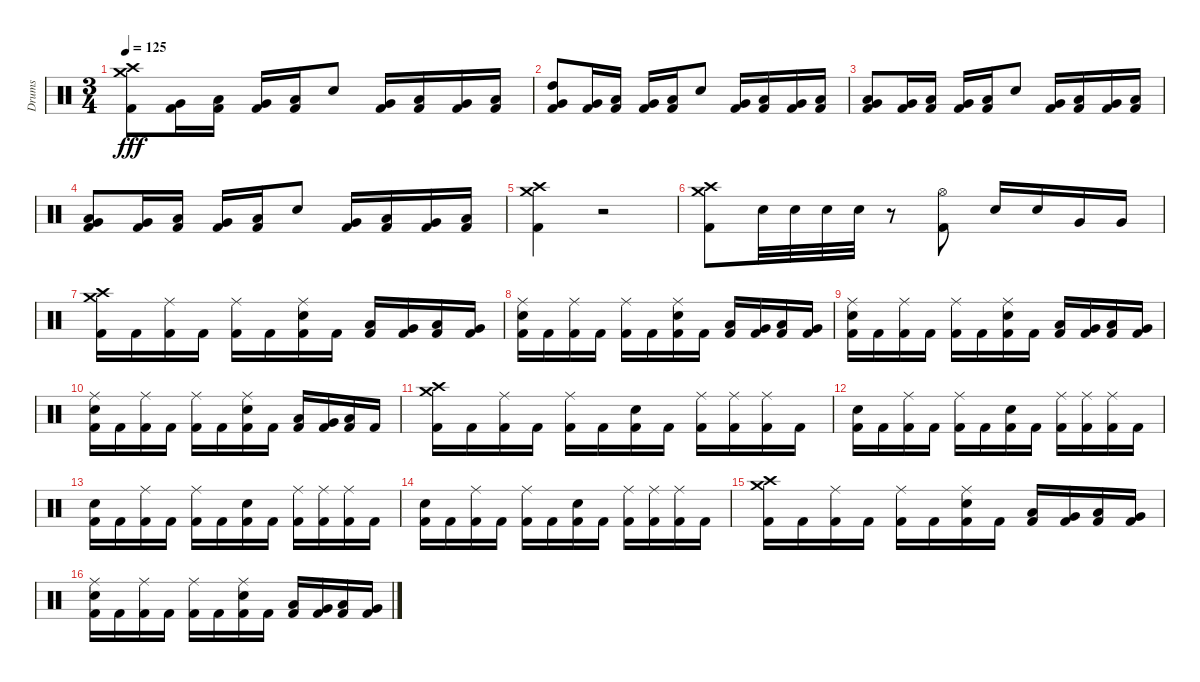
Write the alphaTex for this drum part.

\track ("Drums" "Drums") {instrument percussion}
\staff {score}
\articulation defaults
\ts (3 4)
\tempo 125
\clef neutral
\ks c
("Kick (hit) 2" "Crash medium (hit)" "Crash high (hit)").8{dy fff} ("Kick (hit) 2" "Very Low Tom (hit)").16 ("Kick (hit) 2" "Low Tom (hit)").16 ("Kick (hit) 2" "Very Low Tom (hit)").16 ("Kick (hit) 2" "Low Tom (hit)").16 "Electric Snare (hit)".8 ("Kick (hit) 2" "Very Low Tom (hit)").16 ("Kick (hit) 2" "Low Tom (hit)").16 ("Kick (hit) 2" "Very Low Tom (hit)").16 ("Kick (hit) 2" "Low Tom (hit)").16 |
("Kick (hit) 2" "Very Low Tom (hit)" "High Tom (hit)").8 ("Kick (hit) 2" "Very Low Tom (hit)").16 ("Kick (hit) 2" "Low Tom (hit)").16 ("Kick (hit) 2" "Very Low Tom (hit)").16 ("Kick (hit) 2" "Low Tom (hit)").16 "Electric Snare (hit)".8 ("Kick (hit) 2" "Very Low Tom (hit)").16 ("Kick (hit) 2" "Low Tom (hit)").16 ("Kick (hit) 2" "Very Low Tom (hit)").16 ("Kick (hit) 2" "Low Tom (hit)").16 |
("Kick (hit) 2" "Low Tom (hit)" "Very Low Tom (hit)").8 ("Kick (hit) 2" "Very Low Tom (hit)").16 ("Kick (hit) 2" "Low Tom (hit)").16 ("Kick (hit) 2" "Very Low Tom (hit)").16 ("Kick (hit) 2" "Low Tom (hit)").16 "Electric Snare (hit)".8 ("Kick (hit) 2" "Very Low Tom (hit)").16 ("Kick (hit) 2" "Low Tom (hit)").16 ("Kick (hit) 2" "Very Low Tom (hit)").16 ("Kick (hit) 2" "Low Tom (hit)").16 |
("Kick (hit) 2" "Low Tom (hit)" "Very Low Tom (hit)").8 ("Kick (hit) 2" "Very Low Tom (hit)").16 ("Kick (hit) 2" "Low Tom (hit)").16 ("Kick (hit) 2" "Very Low Tom (hit)").16 ("Kick (hit) 2" "Low Tom (hit)").16 "Electric Snare (hit)".8 ("Kick (hit) 2" "Very Low Tom (hit)").16 ("Kick (hit) 2" "Low Tom (hit)").16 ("Kick (hit) 2" "Very Low Tom (hit)").16 ("Kick (hit) 2" "Low Tom (hit)").16 |
("Kick (hit) 2" "Crash medium (hit)" "Crash high (hit)").4 r.2 |
("Kick (hit) 2" "Crash medium (hit)" "Crash high (hit)").8 "Electric Snare (hit)".32 "Electric Snare (hit)".32 "Electric Snare (hit)".32 "Electric Snare (hit)".32 r.8 ("Kick (hit) 2" "Hi-Hat (open)").8 "Electric Snare (hit)".16 "Electric Snare (hit)".16 "Very Low Tom (hit)".16 "Very Low Tom (hit)".16 |
("Kick (hit) 2" "Crash medium (hit)" "Crash high (hit)").16 "Kick (hit) 2".16 ("Kick (hit) 2" "Ride (middle)").16 "Kick (hit) 2".16 ("Kick (hit) 2" "Ride (middle)").16 "Kick (hit) 2".16 ("Kick (hit) 2" "Electric Snare (hit)" "Ride (middle)").16 "Kick (hit) 2".16 ("Kick (hit) 2" "Low Tom (hit)").16 ("Kick (hit) 2" "Very Low Tom (hit)").16 ("Kick (hit) 2" "Low Tom (hit)").16 ("Kick (hit) 2" "Very Low Tom (hit)").16 |
("Kick (hit) 2" "Electric Snare (hit)" "Ride (middle)").16 "Kick (hit) 2".16 ("Kick (hit) 2" "Ride (middle)").16 "Kick (hit) 2".16 ("Kick (hit) 2" "Ride (middle)").16 "Kick (hit) 2".16 ("Kick (hit) 2" "Electric Snare (hit)" "Ride (middle)").16 "Kick (hit) 2".16 ("Kick (hit) 2" "Low Tom (hit)").16 ("Kick (hit) 2" "Very Low Tom (hit)").16 ("Kick (hit) 2" "Low Tom (hit)").16 ("Kick (hit) 2" "Very Low Tom (hit)").16 |
("Kick (hit) 2" "Electric Snare (hit)" "Ride (middle)").16 "Kick (hit) 2".16 ("Kick (hit) 2" "Ride (middle)").16 "Kick (hit) 2".16 ("Kick (hit) 2" "Ride (middle)").16 "Kick (hit) 2".16 ("Kick (hit) 2" "Electric Snare (hit)" "Ride (middle)").16 "Kick (hit) 2".16 ("Kick (hit) 2" "Low Tom (hit)").16 ("Kick (hit) 2" "Very Low Tom (hit)").16 ("Kick (hit) 2" "Low Tom (hit)").16 ("Kick (hit) 2" "Very Low Tom (hit)").16 |
("Kick (hit) 2" "Electric Snare (hit)" "Ride (middle)").16 "Kick (hit) 2".16 ("Kick (hit) 2" "Ride (middle)").16 "Kick (hit) 2".16 ("Kick (hit) 2" "Ride (middle)").16 "Kick (hit) 2".16 ("Kick (hit) 2" "Electric Snare (hit)" "Ride (middle)").16 "Kick (hit) 2".16 ("Kick (hit) 2" "Low Tom (hit)").16 ("Kick (hit) 2" "Very Low Tom (hit)").16 ("Kick (hit) 2" "Low Tom (hit)").16 "Kick (hit) 2".16 |
("Kick (hit) 2" "Crash high (hit)" "Crash medium (hit)").16 "Kick (hit) 2".16 ("Kick (hit) 2" "Ride (middle)").16 "Kick (hit) 2".16 ("Kick (hit) 2" "Ride (middle)").16 "Kick (hit) 2".16 ("Kick (hit) 2" "Electric Snare (hit)").16 "Kick (hit) 2".16 ("Kick (hit) 2" "Ride (middle)").16 ("Kick (hit) 2" "Ride (middle)").16 ("Kick (hit) 2" "Ride (middle)").16 "Kick (hit) 2".16 |
("Kick (hit) 2" "Electric Snare (hit)").16 "Kick (hit) 2".16 ("Kick (hit) 2" "Ride (middle)").16 "Kick (hit) 2".16 ("Kick (hit) 2" "Ride (middle)").16 "Kick (hit) 2".16 ("Kick (hit) 2" "Electric Snare (hit)").16 "Kick (hit) 2".16 ("Kick (hit) 2" "Ride (middle)").16 ("Kick (hit) 2" "Ride (middle)").16 ("Kick (hit) 2" "Ride (middle)").16 "Kick (hit) 2".16 |
("Kick (hit) 2" "Electric Snare (hit)").16 "Kick (hit) 2".16 ("Kick (hit) 2" "Ride (middle)").16 "Kick (hit) 2".16 ("Kick (hit) 2" "Ride (middle)").16 "Kick (hit) 2".16 ("Kick (hit) 2" "Electric Snare (hit)").16 "Kick (hit) 2".16 ("Kick (hit) 2" "Ride (middle)").16 ("Kick (hit) 2" "Ride (middle)").16 ("Kick (hit) 2" "Ride (middle)").16 "Kick (hit) 2".16 |
("Kick (hit) 2" "Electric Snare (hit)").16 "Kick (hit) 2".16 ("Kick (hit) 2" "Ride (middle)").16 "Kick (hit) 2".16 ("Kick (hit) 2" "Ride (middle)").16 "Kick (hit) 2".16 ("Kick (hit) 2" "Electric Snare (hit)").16 "Kick (hit) 2".16 ("Kick (hit) 2" "Ride (middle)").16 ("Kick (hit) 2" "Ride (middle)").16 ("Kick (hit) 2" "Ride (middle)").16 "Kick (hit) 2".16 |
("Kick (hit) 2" "Crash medium (hit)" "Crash high (hit)").16 "Kick (hit) 2".16 ("Kick (hit) 2" "Ride (middle)").16 "Kick (hit) 2".16 ("Kick (hit) 2" "Ride (middle)").16 "Kick (hit) 2".16 ("Kick (hit) 2" "Electric Snare (hit)" "Ride (middle)").16 "Kick (hit) 2".16 ("Kick (hit) 2" "Low Tom (hit)").16 ("Kick (hit) 2" "Very Low Tom (hit)").16 ("Kick (hit) 2" "Low Tom (hit)").16 ("Kick (hit) 2" "Very Low Tom (hit)").16 |
("Kick (hit) 2" "Electric Snare (hit)" "Ride (middle)").16 "Kick (hit) 2".16 ("Kick (hit) 2" "Ride (middle)").16 "Kick (hit) 2".16 ("Kick (hit) 2" "Ride (middle)").16 "Kick (hit) 2".16 ("Kick (hit) 2" "Electric Snare (hit)" "Ride (middle)").16 "Kick (hit) 2".16 ("Kick (hit) 2" "Low Tom (hit)").16 ("Kick (hit) 2" "Very Low Tom (hit)").16 ("Kick (hit) 2" "Low Tom (hit)").16 ("Kick (hit) 2" "Very Low Tom (hit)").16
